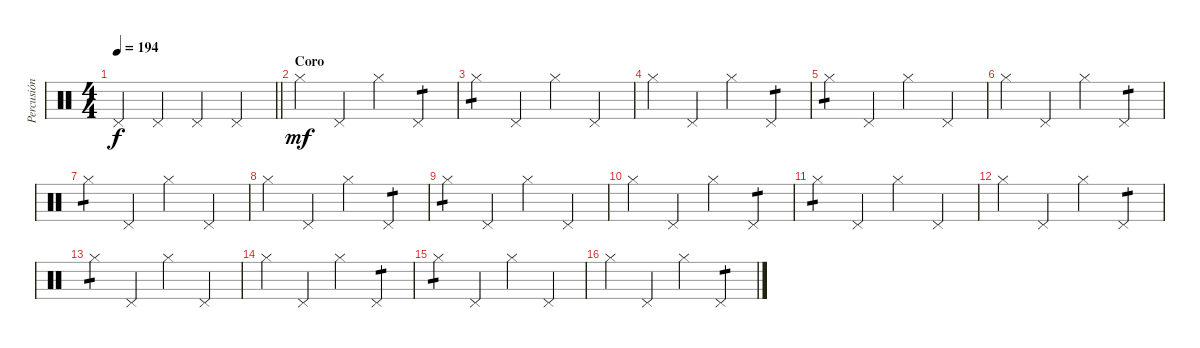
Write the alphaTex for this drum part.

\track ("Percusión" "Percusión") {instrument percussion}
\staff {score}
\articulation defaults
\ts (4 4)
\tempo 194
\clef neutral
\barLineRight lightlight
\ks c "Pedal Hi-Hat (hit)".4{dy f} "Pedal Hi-Hat (hit)".4 "Pedal Hi-Hat (hit)".4 "Pedal Hi-Hat (hit)".4
|
\section ("" "Coro")
"Hi-Hat (closed)".4{dy mf} "Pedal Hi-Hat (hit)".4 "Hi-Hat (closed)".4 "Pedal Hi-Hat (hit)".4{tp 1} |
"Hi-Hat (closed)".4{tp 1} "Pedal Hi-Hat (hit)".4 "Hi-Hat (closed)".4 "Pedal Hi-Hat (hit)".4 |
"Hi-Hat (closed)".4 "Pedal Hi-Hat (hit)".4 "Hi-Hat (closed)".4 "Pedal Hi-Hat (hit)".4{tp 1} |
"Hi-Hat (closed)".4{tp 1} "Pedal Hi-Hat (hit)".4 "Hi-Hat (closed)".4 "Pedal Hi-Hat (hit)".4 |
"Hi-Hat (closed)".4 "Pedal Hi-Hat (hit)".4 "Hi-Hat (closed)".4 "Pedal Hi-Hat (hit)".4{tp 1} |
"Hi-Hat (closed)".4{tp 1} "Pedal Hi-Hat (hit)".4 "Hi-Hat (closed)".4 "Pedal Hi-Hat (hit)".4 |
"Hi-Hat (closed)".4 "Pedal Hi-Hat (hit)".4 "Hi-Hat (closed)".4 "Pedal Hi-Hat (hit)".4{tp 1} |
"Hi-Hat (closed)".4{tp 1} "Pedal Hi-Hat (hit)".4 "Hi-Hat (closed)".4 "Pedal Hi-Hat (hit)".4 |
"Hi-Hat (closed)".4 "Pedal Hi-Hat (hit)".4 "Hi-Hat (closed)".4 "Pedal Hi-Hat (hit)".4{tp 1} |
"Hi-Hat (closed)".4{tp 1} "Pedal Hi-Hat (hit)".4 "Hi-Hat (closed)".4 "Pedal Hi-Hat (hit)".4 |
"Hi-Hat (closed)".4 "Pedal Hi-Hat (hit)".4 "Hi-Hat (closed)".4 "Pedal Hi-Hat (hit)".4{tp 1} |
"Hi-Hat (closed)".4{tp 1} "Pedal Hi-Hat (hit)".4 "Hi-Hat (closed)".4 "Pedal Hi-Hat (hit)".4 |
"Hi-Hat (closed)".4 "Pedal Hi-Hat (hit)".4 "Hi-Hat (closed)".4 "Pedal Hi-Hat (hit)".4{tp 1} |
"Hi-Hat (closed)".4{tp 1} "Pedal Hi-Hat (hit)".4 "Hi-Hat (closed)".4 "Pedal Hi-Hat (hit)".4 |
"Hi-Hat (closed)".4 "Pedal Hi-Hat (hit)".4 "Hi-Hat (closed)".4 "Pedal Hi-Hat (hit)".4{tp 1}
